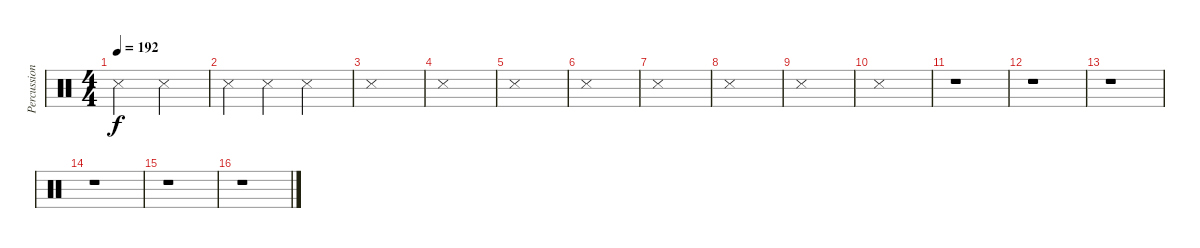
\track ("Percussions" "Percussion") {instrument percussion}
\staff {score}
\articulation defaults
\ts (4 4)
\tempo 192
\clef neutral
\ks c "Metronome (hit)".2{dy f} "Metronome (hit)".2
|
"Metronome (hit)".4 "Metronome (hit)".4 "Metronome (hit)".2 |
"Metronome (hit)".1 |
"Metronome (hit)".1 |
"Metronome (hit)".1 |
"Metronome (hit)".1 |
"Metronome (hit)".1 |
"Metronome (hit)".1 |
"Metronome (hit)".1 |
"Metronome (hit)".1 |
r.1 |
r.1 |
r.1 |
r.1 |
r.1 |
r.1
